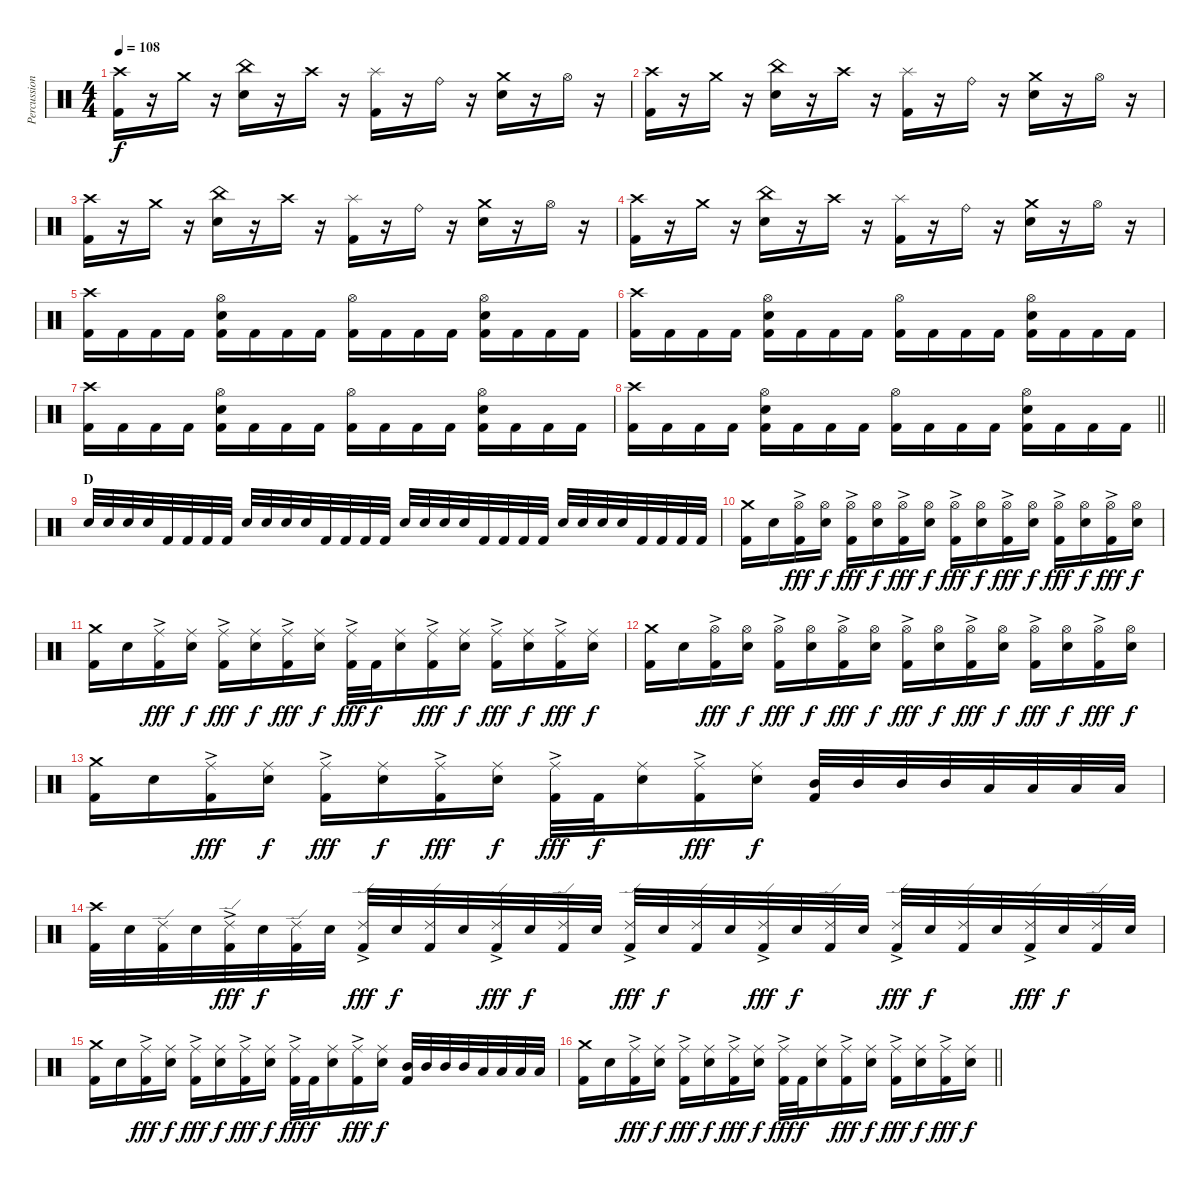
\track ("Percussion" "Percussion") {instrument percussion}
\staff {score}
\articulation defaults
\ts (4 4)
\tempo 108
\clef neutral
\ks c
("Crash high (hit)" "Kick (hit) 2").16{dy f} r.16 "Crash medium (hit)".16 r.16 ("China (hit)" "Electric Snare (hit)").16 r.16 "Crash high (hit)".16 r.16 ("Splash (hit)" "Kick (hit) 2").16 r.16 "Ride (bell)".16 r.16 ("Crash medium (hit)" "Electric Snare (hit)").16 r.16 "Hi-Hat (open)".16 r.16 |
("Crash high (hit)" "Kick (hit) 2").16 r.16 "Crash medium (hit)".16 r.16 ("China (hit)" "Electric Snare (hit)").16 r.16 "Crash high (hit)".16 r.16 ("Splash (hit)" "Kick (hit) 2").16 r.16 "Ride (bell)".16 r.16 ("Crash medium (hit)" "Electric Snare (hit)").16 r.16 "Hi-Hat (open)".16 r.16 |
("Crash high (hit)" "Kick (hit) 2").16 r.16 "Crash medium (hit)".16 r.16 ("China (hit)" "Electric Snare (hit)").16 r.16 "Crash high (hit)".16 r.16 ("Splash (hit)" "Kick (hit) 2").16 r.16 "Ride (bell)".16 r.16 ("Crash medium (hit)" "Electric Snare (hit)").16 r.16 "Hi-Hat (open)".16 r.16 |
("Crash high (hit)" "Kick (hit) 2").16 r.16 "Crash medium (hit)".16 r.16 ("China (hit)" "Electric Snare (hit)").16 r.16 "Crash high (hit)".16 r.16 ("Splash (hit)" "Kick (hit) 2").16 r.16 "Ride (bell)".16 r.16 ("Crash medium (hit)" "Electric Snare (hit)").16 r.16 "Hi-Hat (open)".16 r.16 |
("Crash high (hit)" "Kick (hit) 2").16 "Kick (hit) 2".16 "Kick (hit) 2".16 "Kick (hit) 2".16 ("Hi-Hat (open)" "Electric Snare (hit)" "Kick (hit) 2").16 "Kick (hit) 2".16 "Kick (hit) 2".16 "Kick (hit) 2".16 ("Hi-Hat (open)" "Kick (hit) 2").16 "Kick (hit) 2".16 "Kick (hit) 2".16 "Kick (hit) 2".16 ("Hi-Hat (open)" "Electric Snare (hit)" "Kick (hit) 2").16 "Kick (hit) 2".16 "Kick (hit) 2".16 "Kick (hit) 2".16 |
("Crash high (hit)" "Kick (hit) 2").16 "Kick (hit) 2".16 "Kick (hit) 2".16 "Kick (hit) 2".16 ("Hi-Hat (open)" "Electric Snare (hit)" "Kick (hit) 2").16 "Kick (hit) 2".16 "Kick (hit) 2".16 "Kick (hit) 2".16 ("Hi-Hat (open)" "Kick (hit) 2").16 "Kick (hit) 2".16 "Kick (hit) 2".16 "Kick (hit) 2".16 ("Hi-Hat (open)" "Electric Snare (hit)" "Kick (hit) 2").16 "Kick (hit) 2".16 "Kick (hit) 2".16 "Kick (hit) 2".16 |
("Crash high (hit)" "Kick (hit) 2").16 "Kick (hit) 2".16 "Kick (hit) 2".16 "Kick (hit) 2".16 ("Hi-Hat (open)" "Electric Snare (hit)" "Kick (hit) 2").16 "Kick (hit) 2".16 "Kick (hit) 2".16 "Kick (hit) 2".16 ("Hi-Hat (open)" "Kick (hit) 2").16 "Kick (hit) 2".16 "Kick (hit) 2".16 "Kick (hit) 2".16 ("Hi-Hat (open)" "Electric Snare (hit)" "Kick (hit) 2").16 "Kick (hit) 2".16 "Kick (hit) 2".16 "Kick (hit) 2".16 |
\barLineRight lightlight
("Crash high (hit)" "Kick (hit) 2").16 "Kick (hit) 2".16 "Kick (hit) 2".16 "Kick (hit) 2".16 ("Hi-Hat (open)" "Electric Snare (hit)" "Kick (hit) 2").16 "Kick (hit) 2".16 "Kick (hit) 2".16 "Kick (hit) 2".16 ("Hi-Hat (open)" "Kick (hit) 2").16 "Kick (hit) 2".16 "Kick (hit) 2".16 "Kick (hit) 2".16 ("Hi-Hat (open)" "Electric Snare (hit)" "Kick (hit) 2").16 "Kick (hit) 2".16 "Kick (hit) 2".16 "Kick (hit) 2".16 |
\section ("" "D")
"Electric Snare (hit)".32 "Electric Snare (hit)".32 "Electric Snare (hit)".32 "Electric Snare (hit)".32 "Kick (hit) 2".32 "Kick (hit) 2".32 "Kick (hit) 2".32 "Kick (hit) 2".32 "Electric Snare (hit)".32 "Electric Snare (hit)".32 "Electric Snare (hit)".32 "Electric Snare (hit)".32 "Kick (hit) 2".32 "Kick (hit) 2".32 "Kick (hit) 2".32 "Kick (hit) 2".32 "Electric Snare (hit)".32 "Electric Snare (hit)".32 "Electric Snare (hit)".32 "Electric Snare (hit)".32 "Kick (hit) 2".32 "Kick (hit) 2".32 "Kick (hit) 2".32 "Kick (hit) 2".32 "Electric Snare (hit)".32 "Electric Snare (hit)".32 "Electric Snare (hit)".32 "Electric Snare (hit)".32 "Kick (hit) 2".32 "Kick (hit) 2".32 "Kick (hit) 2".32 "Kick (hit) 2".32 |
("Crash medium (hit)" "Kick (hit) 2").16 "Electric Snare (hit)".16 ("Hi-Hat (open)"{ac} "Kick (hit) 2").16{dy fff} ("Hi-Hat (open)" "Electric Snare (hit)").16{dy f} ("Hi-Hat (open)"{ac} "Kick (hit) 2").16{dy fff} ("Hi-Hat (open)" "Electric Snare (hit)").16{dy f} ("Hi-Hat (open)"{ac} "Kick (hit) 2").16{dy fff} ("Hi-Hat (open)" "Electric Snare (hit)").16{dy f} ("Hi-Hat (open)"{ac} "Kick (hit) 2").16{dy fff} ("Hi-Hat (open)" "Electric Snare (hit)").16{dy f} ("Hi-Hat (open)"{ac} "Kick (hit) 2").16{dy fff} ("Hi-Hat (open)" "Electric Snare (hit)").16{dy f} ("Hi-Hat (open)"{ac} "Kick (hit) 2").16{dy fff} ("Hi-Hat (open)" "Electric Snare (hit)").16{dy f} ("Hi-Hat (open)"{ac} "Kick (hit) 2").16{dy fff} ("Hi-Hat (open)" "Electric Snare (hit)").16{dy f} |
("Crash medium (hit)" "Kick (hit) 2").16 "Electric Snare (hit)".16 ("Ride (middle)"{ac} "Kick (hit) 2").16{dy fff} ("Ride (middle)" "Electric Snare (hit)").16{dy f} ("Ride (middle)"{ac} "Kick (hit) 2").16{dy fff} ("Ride (middle)" "Electric Snare (hit)").16{dy f} ("Ride (middle)"{ac} "Kick (hit) 2").16{dy fff} ("Ride (middle)" "Electric Snare (hit)").16{dy f} ("Ride (middle)"{ac} "Kick (hit) 2").32{dy fff} "Kick (hit) 2".32{dy f} ("Ride (middle)" "Electric Snare (hit)").16 ("Ride (middle)"{ac} "Kick (hit) 2").16{dy fff} ("Ride (middle)" "Electric Snare (hit)").16{dy f} ("Ride (middle)"{ac} "Kick (hit) 2").16{dy fff} ("Ride (middle)" "Electric Snare (hit)").16{dy f} ("Ride (middle)"{ac} "Kick (hit) 2").16{dy fff} ("Ride (middle)" "Electric Snare (hit)").16{dy f} |
("Crash medium (hit)" "Kick (hit) 2").16 "Electric Snare (hit)".16 ("Hi-Hat (open)"{ac} "Kick (hit) 2").16{dy fff} ("Hi-Hat (open)" "Electric Snare (hit)").16{dy f} ("Hi-Hat (open)"{ac} "Kick (hit) 2").16{dy fff} ("Hi-Hat (open)" "Electric Snare (hit)").16{dy f} ("Hi-Hat (open)"{ac} "Kick (hit) 2").16{dy fff} ("Hi-Hat (open)" "Electric Snare (hit)").16{dy f} ("Hi-Hat (open)"{ac} "Kick (hit) 2").16{dy fff} ("Hi-Hat (open)" "Electric Snare (hit)").16{dy f} ("Hi-Hat (open)"{ac} "Kick (hit) 2").16{dy fff} ("Hi-Hat (open)" "Electric Snare (hit)").16{dy f} ("Hi-Hat (open)"{ac} "Kick (hit) 2").16{dy fff} ("Hi-Hat (open)" "Electric Snare (hit)").16{dy f} ("Hi-Hat (open)"{ac} "Kick (hit) 2").16{dy fff} ("Hi-Hat (open)" "Electric Snare (hit)").16{dy f} |
("Crash medium (hit)" "Kick (hit) 2").16 "Electric Snare (hit)".16 ("Ride (middle)"{ac} "Kick (hit) 2").16{dy fff} ("Ride (middle)" "Electric Snare (hit)").16{dy f} ("Ride (middle)"{ac} "Kick (hit) 2").16{dy fff} ("Ride (middle)" "Electric Snare (hit)").16{dy f} ("Ride (middle)"{ac} "Kick (hit) 2").16{dy fff} ("Ride (middle)" "Electric Snare (hit)").16{dy f} ("Ride (middle)"{ac} "Kick (hit) 2").32{dy fff} "Kick (hit) 2".32{dy f} ("Ride (middle)" "Electric Snare (hit)").16 ("Ride (middle)"{ac} "Kick (hit) 2").16{dy fff} ("Ride (middle)" "Electric Snare (hit)").16{dy f} ("Mid Tom (hit)" "Kick (hit) 2").32 "Mid Tom (hit)".32 "Mid Tom (hit)".32 "Mid Tom (hit)".32 "Low Tom (hit)".32 "Low Tom (hit)".32 "Low Tom (hit)".32 "Low Tom (hit)".32 |
("Crash high (hit)" "Kick (hit) 2").32 "Electric Snare (hit)".32 ("Ride (edge) 2" "Kick (hit) 2").32 "Electric Snare (hit)".32 ("Ride (edge) 2"{ac} "Kick (hit) 2").32{dy fff} "Electric Snare (hit)".32{dy f} ("Ride (edge) 2" "Kick (hit) 2").32 "Electric Snare (hit)".32 ("Ride (edge) 2"{ac} "Kick (hit) 2").32{dy fff} "Electric Snare (hit)".32{dy f} ("Ride (edge) 2" "Kick (hit) 2").32 "Electric Snare (hit)".32 ("Ride (edge) 2"{ac} "Kick (hit) 2").32{dy fff} "Electric Snare (hit)".32{dy f} ("Ride (edge) 2" "Kick (hit) 2").32 "Electric Snare (hit)".32 ("Ride (edge) 2"{ac} "Kick (hit) 2").32{dy fff} "Electric Snare (hit)".32{dy f} ("Ride (edge) 2" "Kick (hit) 2").32 "Electric Snare (hit)".32 ("Ride (edge) 2"{ac} "Kick (hit) 2").32{dy fff} "Electric Snare (hit)".32{dy f} ("Ride (edge) 2" "Kick (hit) 2").32 "Electric Snare (hit)".32 ("Ride (edge) 2"{ac} "Kick (hit) 2").32{dy fff} "Electric Snare (hit)".32{dy f} ("Ride (edge) 2" "Kick (hit) 2").32 "Electric Snare (hit)".32 ("Ride (edge) 2"{ac} "Kick (hit) 2").32{dy fff} "Electric Snare (hit)".32{dy f} ("Ride (edge) 2" "Kick (hit) 2").32 "Electric Snare (hit)".32 |
("Crash medium (hit)" "Kick (hit) 2").16 "Electric Snare (hit)".16 ("Ride (middle)"{ac} "Kick (hit) 2").16{dy fff} ("Ride (middle)" "Electric Snare (hit)").16{dy f} ("Ride (middle)"{ac} "Kick (hit) 2").16{dy fff} ("Ride (middle)" "Electric Snare (hit)").16{dy f} ("Ride (middle)"{ac} "Kick (hit) 2").16{dy fff} ("Ride (middle)" "Electric Snare (hit)").16{dy f} ("Ride (middle)"{ac} "Kick (hit) 2").32{dy fff} "Kick (hit) 2".32{dy f} ("Ride (middle)" "Electric Snare (hit)").16 ("Ride (middle)"{ac} "Kick (hit) 2").16{dy fff} ("Ride (middle)" "Electric Snare (hit)").16{dy f} ("Mid Tom (hit)" "Kick (hit) 2").32 "Mid Tom (hit)".32 "Mid Tom (hit)".32 "Mid Tom (hit)".32 "Low Tom (hit)".32 "Low Tom (hit)".32 "Low Tom (hit)".32 "Low Tom (hit)".32 |
\barLineRight lightlight
("Crash medium (hit)" "Kick (hit) 2").16 "Electric Snare (hit)".16 ("Ride (middle)"{ac} "Kick (hit) 2").16{dy fff} ("Ride (middle)" "Electric Snare (hit)").16{dy f} ("Ride (middle)"{ac} "Kick (hit) 2").16{dy fff} ("Ride (middle)" "Electric Snare (hit)").16{dy f} ("Ride (middle)"{ac} "Kick (hit) 2").16{dy fff} ("Ride (middle)" "Electric Snare (hit)").16{dy f} ("Ride (middle)"{ac} "Kick (hit) 2").32{dy fff} "Kick (hit) 2".32{dy f} ("Ride (middle)" "Electric Snare (hit)").16 ("Ride (middle)"{ac} "Kick (hit) 2").16{dy fff} ("Ride (middle)" "Electric Snare (hit)").16{dy f} ("Ride (middle)"{ac} "Kick (hit) 2").16{dy fff} ("Ride (middle)" "Electric Snare (hit)").16{dy f} ("Ride (middle)"{ac} "Kick (hit) 2").16{dy fff} ("Ride (middle)" "Electric Snare (hit)").16{dy f}
